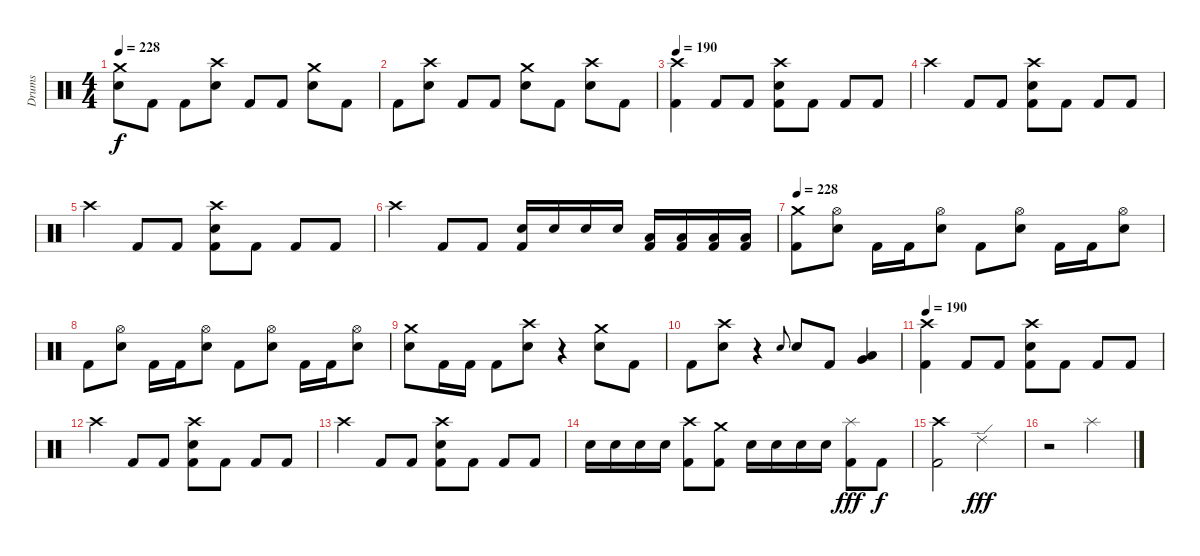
\track ("Drums" "Drums") {instrument percussion}
\staff {score}
\articulation defaults
\ts (4 4)
\tempo 228
\clef neutral
\ks c
("Crash medium (hit)" "Electric Snare (hit)").8{dy f} "Kick (hit) 2".8 "Kick (hit) 2".8 ("Crash high (hit)" "Electric Snare (hit)").8 "Kick (hit) 2".8 "Kick (hit) 2".8 ("Crash medium (hit)" "Electric Snare (hit)").8 "Kick (hit) 2".8 |
"Kick (hit) 2".8 ("Crash high (hit)" "Electric Snare (hit)").8 "Kick (hit) 2".8 "Kick (hit) 2".8 ("Crash medium (hit)" "Electric Snare (hit)").8 "Kick (hit) 2".8 ("Crash high (hit)" "Electric Snare (hit)").8 "Kick (hit) 2".8 |
\tempo 190
("Crash high (hit)" "Kick (hit) 2").4 "Kick (hit) 2".8 "Kick (hit) 2".8 ("Crash high (hit)" "Electric Snare (hit)" "Kick (hit) 2").8 "Kick (hit) 2".8 "Kick (hit) 2".8 "Kick (hit) 2".8 |
"Crash high (hit)".4 "Kick (hit) 2".8 "Kick (hit) 2".8 ("Crash high (hit)" "Electric Snare (hit)" "Kick (hit) 2").8 "Kick (hit) 2".8 "Kick (hit) 2".8 "Kick (hit) 2".8 |
"Crash high (hit)".4 "Kick (hit) 2".8 "Kick (hit) 2".8 ("Crash high (hit)" "Electric Snare (hit)" "Kick (hit) 2").8 "Kick (hit) 2".8 "Kick (hit) 2".8 "Kick (hit) 2".8 |
"Crash high (hit)".4 "Kick (hit) 2".8 "Kick (hit) 2".8 ("Electric Snare (hit)" "Kick (hit) 2").16 "Electric Snare (hit)".16 "Electric Snare (hit)".16 "Electric Snare (hit)".16 ("Low Tom (hit)" "Kick (hit) 2").16 ("Low Tom (hit)" "Kick (hit) 2").16 ("Low Tom (hit)" "Kick (hit) 2").16 ("Low Tom (hit)" "Kick (hit) 2").16 |
\tempo 228
("Crash medium (hit)" "Kick (hit) 2").8 ("Hi-Hat (open)" "Electric Snare (hit)").8 "Kick (hit) 2".16 "Kick (hit) 2".16 ("Hi-Hat (open)" "Electric Snare (hit)").8 "Kick (hit) 2".8 ("Hi-Hat (open)" "Electric Snare (hit)").8 "Kick (hit) 2".16 "Kick (hit) 2".16 ("Hi-Hat (open)" "Electric Snare (hit)").8 |
"Kick (hit) 2".8 ("Hi-Hat (open)" "Electric Snare (hit)").8 "Kick (hit) 2".16 "Kick (hit) 2".16 ("Hi-Hat (open)" "Electric Snare (hit)").8 "Kick (hit) 2".8 ("Hi-Hat (open)" "Electric Snare (hit)").8 "Kick (hit) 2".16 "Kick (hit) 2".16 ("Hi-Hat (open)" "Electric Snare (hit)").8 |
("Crash medium (hit)" "Electric Snare (hit)").8 "Kick (hit) 2".16 "Kick (hit) 2".16 "Kick (hit) 2".8 ("Crash high (hit)" "Electric Snare (hit)").8 r.4 ("Crash medium (hit)" "Electric Snare (hit)").8 "Kick (hit) 2".8 |
"Kick (hit) 2".8 ("Crash high (hit)" "Electric Snare (hit)").8 r.4 "Electric Snare (hit)".8{gr onbeat} "Electric Snare (hit)".8 "Kick (hit) 2".8 ("Very Low Tom (hit)" "Low Tom (hit)").4 |
\tempo 190
("Crash high (hit)" "Kick (hit) 2").4 "Kick (hit) 2".8 "Kick (hit) 2".8 ("Crash high (hit)" "Electric Snare (hit)" "Kick (hit) 2").8 "Kick (hit) 2".8 "Kick (hit) 2".8 "Kick (hit) 2".8 |
"Crash high (hit)".4 "Kick (hit) 2".8 "Kick (hit) 2".8 ("Crash high (hit)" "Electric Snare (hit)" "Kick (hit) 2").8 "Kick (hit) 2".8 "Kick (hit) 2".8 "Kick (hit) 2".8 |
"Crash high (hit)".4 "Kick (hit) 2".8 "Kick (hit) 2".8 ("Crash high (hit)" "Electric Snare (hit)" "Kick (hit) 2").8 "Kick (hit) 2".8 "Kick (hit) 2".8 "Kick (hit) 2".8 |
"Electric Snare (hit)".16 "Electric Snare (hit)".16 "Electric Snare (hit)".16 "Electric Snare (hit)".16 ("Crash high (hit)" "Kick (hit) 2").8 ("Crash medium (hit)" "Kick (hit) 2").8 "Electric Snare (hit)".16 "Electric Snare (hit)".16 "Electric Snare (hit)".16 "Electric Snare (hit)".16 ("Splash (hit)" "Kick (hit) 2").8{dy fff} "Kick (hit) 2".8{dy f} |
("Crash high (hit)" "Kick (hit) 2").2 "Ride (edge) 2".2{dy fff} |
r.2 "Splash (hit)".2
